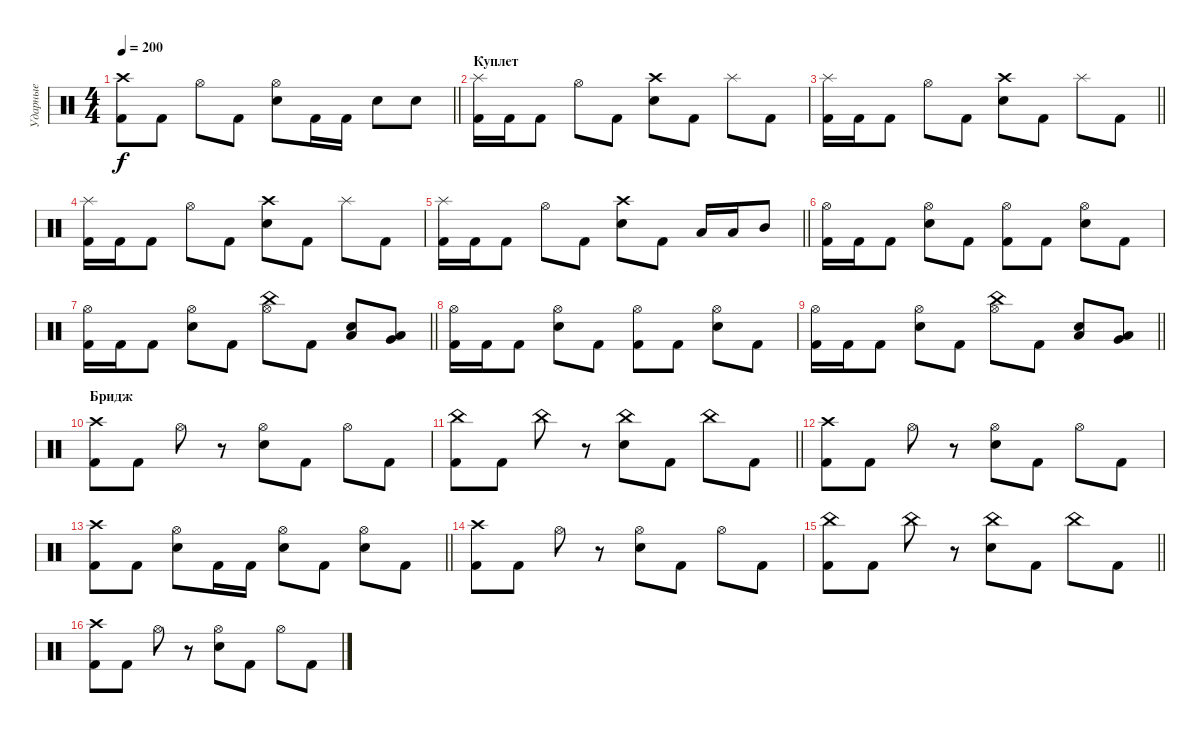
\track ("Ударные" "Ударные") {instrument percussion}
\staff {score}
\articulation defaults
\ts (4 4)
\tempo 200
\clef neutral
\barLineRight lightlight
\ks c
("Kick (hit) 2" "Crash high (hit)").8{dy f} "Kick (hit) 2".8 "Hi-Hat (open)".8 "Kick (hit) 2".8 ("Hi-Hat (open)" "Electric Snare (hit)").8 "Kick (hit) 2".16 "Kick (hit) 2".16 "Electric Snare (hit)".8 "Electric Snare (hit)".8 |
\section ("" "Куплет")
("Splash (hit)" "Kick (hit) 2").16 "Kick (hit) 2".16 "Kick (hit) 2".8 "Hi-Hat (open)".8 "Kick (hit) 2".8 ("Electric Snare (hit)" "Crash high (hit)").8 "Kick (hit) 2".8 "Splash (hit)".8 "Kick (hit) 2".8 |
\barLineRight lightlight
("Splash (hit)" "Kick (hit) 2").16 "Kick (hit) 2".16 "Kick (hit) 2".8 "Hi-Hat (open)".8 "Kick (hit) 2".8 ("Electric Snare (hit)" "Crash high (hit)").8 "Kick (hit) 2".8 "Splash (hit)".8 "Kick (hit) 2".8 |
("Splash (hit)" "Kick (hit) 2").16 "Kick (hit) 2".16 "Kick (hit) 2".8 "Hi-Hat (open)".8 "Kick (hit) 2".8 ("Electric Snare (hit)" "Crash high (hit)").8 "Kick (hit) 2".8 "Splash (hit)".8 "Kick (hit) 2".8 |
\barLineRight lightlight
("Splash (hit)" "Kick (hit) 2").16 "Kick (hit) 2".16 "Kick (hit) 2".8 "Hi-Hat (open)".8 "Kick (hit) 2".8 ("Electric Snare (hit)" "Crash high (hit)").8 "Kick (hit) 2".8 "Low Tom (hit)".16 "Low Tom (hit)".16 "Mid Tom (hit)".8 |
("Hi-Hat (open)" "Kick (hit) 2").16 "Kick (hit) 2".16 "Kick (hit) 2".8 ("Electric Snare (hit)" "Hi-Hat (open)").8 "Kick (hit) 2".8 ("Hi-Hat (open)" "Kick (hit) 2").8 "Kick (hit) 2".8 ("Hi-Hat (open)" "Electric Snare (hit)").8 "Kick (hit) 2".8 |
\barLineRight lightlight
("Hi-Hat (open)" "Kick (hit) 2").16 "Kick (hit) 2".16 "Kick (hit) 2".8 ("Electric Snare (hit)" "Hi-Hat (open)").8 "Kick (hit) 2".8 ("China (hit)" "Hi-Hat (open)").8 "Kick (hit) 2".8 ("Electric Snare (hit)" "Low Floor Tom (hit)").8 ("Very Low Tom (hit)" "Low Floor Tom (hit)").8 |
("Hi-Hat (open)" "Kick (hit) 2").16 "Kick (hit) 2".16 "Kick (hit) 2".8 ("Electric Snare (hit)" "Hi-Hat (open)").8 "Kick (hit) 2".8 ("Hi-Hat (open)" "Kick (hit) 2").8 "Kick (hit) 2".8 ("Hi-Hat (open)" "Electric Snare (hit)").8 "Kick (hit) 2".8 |
\barLineRight lightlight
("Hi-Hat (open)" "Kick (hit) 2").16 "Kick (hit) 2".16 "Kick (hit) 2".8 ("Electric Snare (hit)" "Hi-Hat (open)").8 "Kick (hit) 2".8 ("China (hit)" "Hi-Hat (open)").8 "Kick (hit) 2".8 ("Electric Snare (hit)" "Low Floor Tom (hit)").8 ("Very Low Tom (hit)" "Low Floor Tom (hit)").8 |
\section ("" "Бридж")
("Crash high (hit)" "Kick (hit) 2").8 "Kick (hit) 2".8 "Hi-Hat (open)".8 r.8 ("Electric Snare (hit)" "Hi-Hat (open)").8 "Kick (hit) 2".8 "Hi-Hat (open)".8 "Kick (hit) 2".8 |
\barLineRight lightlight
("China (hit)" "Kick (hit) 2").8 "Kick (hit) 2".8 "China (hit)".8 r.8 ("Electric Snare (hit)" "China (hit)").8 "Kick (hit) 2".8 "China (hit)".8 "Kick (hit) 2".8 |
("Crash high (hit)" "Kick (hit) 2").8 "Kick (hit) 2".8 "Hi-Hat (open)".8 r.8 ("Electric Snare (hit)" "Hi-Hat (open)").8 "Kick (hit) 2".8 "Hi-Hat (open)".8 "Kick (hit) 2".8 |
\barLineRight lightlight
("Crash high (hit)" "Kick (hit) 2").8 "Kick (hit) 2".8 ("Electric Snare (hit)" "Hi-Hat (open)").8 "Kick (hit) 2".16 "Kick (hit) 2".16 ("Electric Snare (hit)" "Hi-Hat (open)").8 "Kick (hit) 2".8 ("Electric Snare (hit)" "Hi-Hat (open)").8 "Kick (hit) 2".8 |
("Crash high (hit)" "Kick (hit) 2").8 "Kick (hit) 2".8 "Hi-Hat (open)".8 r.8 ("Electric Snare (hit)" "Hi-Hat (open)").8 "Kick (hit) 2".8 "Hi-Hat (open)".8 "Kick (hit) 2".8 |
\barLineRight lightlight
("China (hit)" "Kick (hit) 2").8 "Kick (hit) 2".8 "China (hit)".8 r.8 ("Electric Snare (hit)" "China (hit)").8 "Kick (hit) 2".8 "China (hit)".8 "Kick (hit) 2".8 |
("Crash high (hit)" "Kick (hit) 2").8 "Kick (hit) 2".8 "Hi-Hat (open)".8 r.8 ("Electric Snare (hit)" "Hi-Hat (open)").8 "Kick (hit) 2".8 "Hi-Hat (open)".8 "Kick (hit) 2".8
